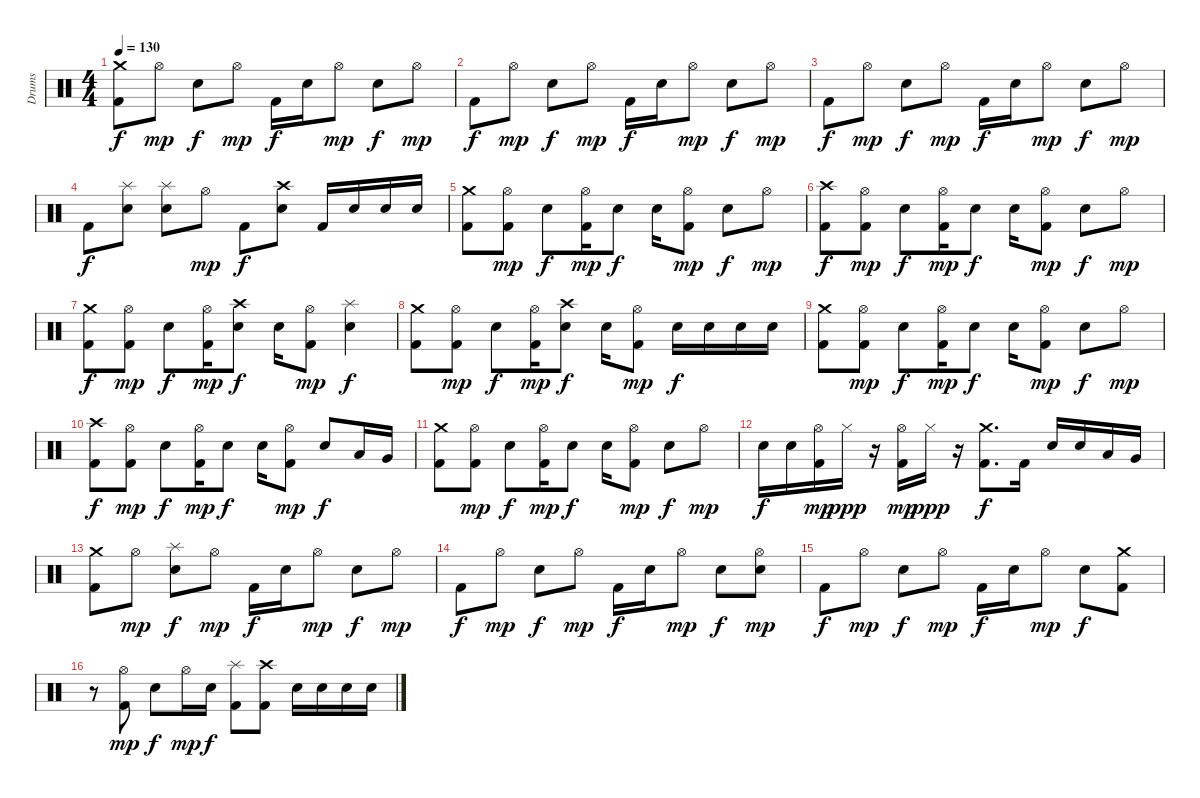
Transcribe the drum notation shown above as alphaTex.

\track ("Drums" "Drums") {instrument percussion}
\staff {score}
\articulation defaults
\ts (4 4)
\tempo 130
\clef neutral
\ks c
("Crash medium (hit)" "Kick (hit) 2").8{dy f} "Hi-Hat (open)".8{dy mp} "Snare (hit) 2".8{dy f} "Hi-Hat (open)".8{dy mp} "Kick (hit) 2".16{dy f} "Snare (hit) 2".16 "Hi-Hat (open)".8{dy mp} "Snare (hit) 2".8{dy f} "Hi-Hat (open)".8{dy mp} |
"Kick (hit) 2".8{dy f} "Hi-Hat (open)".8{dy mp} "Snare (hit) 2".8{dy f} "Hi-Hat (open)".8{dy mp} "Kick (hit) 2".16{dy f} "Snare (hit) 2".16 "Hi-Hat (open)".8{dy mp} "Snare (hit) 2".8{dy f} "Hi-Hat (open)".8{dy mp} |
"Kick (hit) 2".8{dy f} "Hi-Hat (open)".8{dy mp} "Snare (hit) 2".8{dy f} "Hi-Hat (open)".8{dy mp} "Kick (hit) 2".16{dy f} "Snare (hit) 2".16 "Hi-Hat (open)".8{dy mp} "Snare (hit) 2".8{dy f} "Hi-Hat (open)".8{dy mp} |
"Kick (hit) 2".8{dy f} ("Splash (hit)" "Snare (hit) 2").8 ("Splash (hit)" "Snare (hit) 2").8 "Hi-Hat (open)".8{dy mp} "Kick (hit) 2".8{dy f} ("Crash high (hit)" "Snare (hit) 2").8 "Kick (hit) 2".16 "Snare (hit) 2".16 "Snare (hit) 2".16 "Snare (hit) 2".16 |
("Crash medium (hit)" "Kick (hit) 2").8 ("Hi-Hat (open)" "Kick (hit) 2").8{dy mp} "Snare (hit) 2".8{dy f} ("Hi-Hat (open)" "Kick (hit) 2").16{dy mp} "Snare (hit) 2".8{dy f} "Snare (hit) 2".16 ("Hi-Hat (open)" "Kick (hit) 2").8{dy mp} "Snare (hit) 2".8{dy f} "Hi-Hat (open)".8{dy mp} |
("Crash high (hit)" "Kick (hit) 2").8{dy f} ("Hi-Hat (open)" "Kick (hit) 2").8{dy mp} "Snare (hit) 2".8{dy f} ("Hi-Hat (open)" "Kick (hit) 2").16{dy mp} "Snare (hit) 2".8{dy f} "Snare (hit) 2".16 ("Hi-Hat (open)" "Kick (hit) 2").8{dy mp} "Snare (hit) 2".8{dy f} "Hi-Hat (open)".8{dy mp} |
("Crash medium (hit)" "Kick (hit) 2").8{dy f} ("Hi-Hat (open)" "Kick (hit) 2").8{dy mp} "Snare (hit) 2".8{dy f} ("Hi-Hat (open)" "Kick (hit) 2").16{dy mp} ("Crash high (hit)" "Snare (hit) 2").8{dy f} "Snare (hit) 2".16 ("Hi-Hat (open)" "Kick (hit) 2").8{dy mp} ("Splash (hit)" "Snare (hit) 2").4{dy f} |
("Crash medium (hit)" "Kick (hit) 2").8 ("Hi-Hat (open)" "Kick (hit) 2").8{dy mp} "Snare (hit) 2".8{dy f} ("Hi-Hat (open)" "Kick (hit) 2").16{dy mp} ("Crash high (hit)" "Snare (hit) 2").8{dy f} "Snare (hit) 2".16 ("Hi-Hat (open)" "Kick (hit) 2").8{dy mp} "Snare (hit) 2".16{dy f} "Snare (hit) 2".16 "Snare (hit) 2".16 "Snare (hit) 2".16 |
("Crash medium (hit)" "Kick (hit) 2").8 ("Hi-Hat (open)" "Kick (hit) 2").8{dy mp} "Snare (hit) 2".8{dy f} ("Hi-Hat (open)" "Kick (hit) 2").16{dy mp} "Snare (hit) 2".8{dy f} "Snare (hit) 2".16 ("Hi-Hat (open)" "Kick (hit) 2").8{dy mp} "Snare (hit) 2".8{dy f} "Hi-Hat (open)".8{dy mp} |
("Crash high (hit)" "Kick (hit) 2").8{dy f} ("Hi-Hat (open)" "Kick (hit) 2").8{dy mp} "Snare (hit) 2".8{dy f} ("Hi-Hat (open)" "Kick (hit) 2").16{dy mp} "Snare (hit) 2".8{dy f} "Snare (hit) 2".16 ("Hi-Hat (open)" "Kick (hit) 2").8{dy mp} "Snare (hit) 2".8{dy f} "Low Tom (hit)".16 "Very Low Tom (hit)".16 |
("Crash medium (hit)" "Kick (hit) 2").8 ("Hi-Hat (open)" "Kick (hit) 2").8{dy mp} "Snare (hit) 2".8{dy f} ("Hi-Hat (open)" "Kick (hit) 2").16{dy mp} "Snare (hit) 2".8{dy f} "Snare (hit) 2".16 ("Hi-Hat (open)" "Kick (hit) 2").8{dy mp} "Snare (hit) 2".8{dy f} "Hi-Hat (open)".8{dy mp} |
"Snare (hit) 2".16{dy f} "Snare (hit) 2".16 ("Hi-Hat (open)" "Kick (hit) 2").16{dy mp} "Hi-Hat (closed)".16{dy ppp} r.16 ("Hi-Hat (open)" "Kick (hit) 2").16{dy mp} "Hi-Hat (closed)".16{dy ppp} r.16 ("Crash medium (hit)" "Kick (hit) 2").8{d dy f} "Kick (hit) 2".16 "Snare (hit) 2".16 "Snare (hit) 2".16 "Low Tom (hit)".16 "Very Low Tom (hit)".16 |
("Crash medium (hit)" "Kick (hit) 2").8 "Hi-Hat (open)".8{dy mp} ("Splash (hit)" "Snare (hit) 2").8{dy f} "Hi-Hat (open)".8{dy mp} "Kick (hit) 2".16{dy f} "Snare (hit) 2".16 "Hi-Hat (open)".8{dy mp} "Snare (hit) 2".8{dy f} "Hi-Hat (open)".8{dy mp} |
"Kick (hit) 2".8{dy f} "Hi-Hat (open)".8{dy mp} "Snare (hit) 2".8{dy f} "Hi-Hat (open)".8{dy mp} "Kick (hit) 2".16{dy f} "Snare (hit) 2".16 "Hi-Hat (open)".8{dy mp} "Snare (hit) 2".8{dy f} ("Hi-Hat (open)" "Snare (hit) 2").8{dy mp} |
"Kick (hit) 2".8{dy f} "Hi-Hat (open)".8{dy mp} "Snare (hit) 2".8{dy f} "Hi-Hat (open)".8{dy mp} "Kick (hit) 2".16{dy f} "Snare (hit) 2".16 "Hi-Hat (open)".8{dy mp} "Snare (hit) 2".8{dy f} ("Crash medium (hit)" "Kick (hit) 2").8 |
r.8 ("Hi-Hat (open)" "Kick (hit) 2").8{dy mp} "Snare (hit) 2".8{dy f} "Hi-Hat (open)".16{dy mp} "Snare (hit) 2".16{dy f} ("Splash (hit)" "Kick (hit) 2").8 ("Crash high (hit)" "Kick (hit) 2").8 "Snare (hit) 2".16 "Snare (hit) 2".16 "Snare (hit) 2".16 "Snare (hit) 2".16
